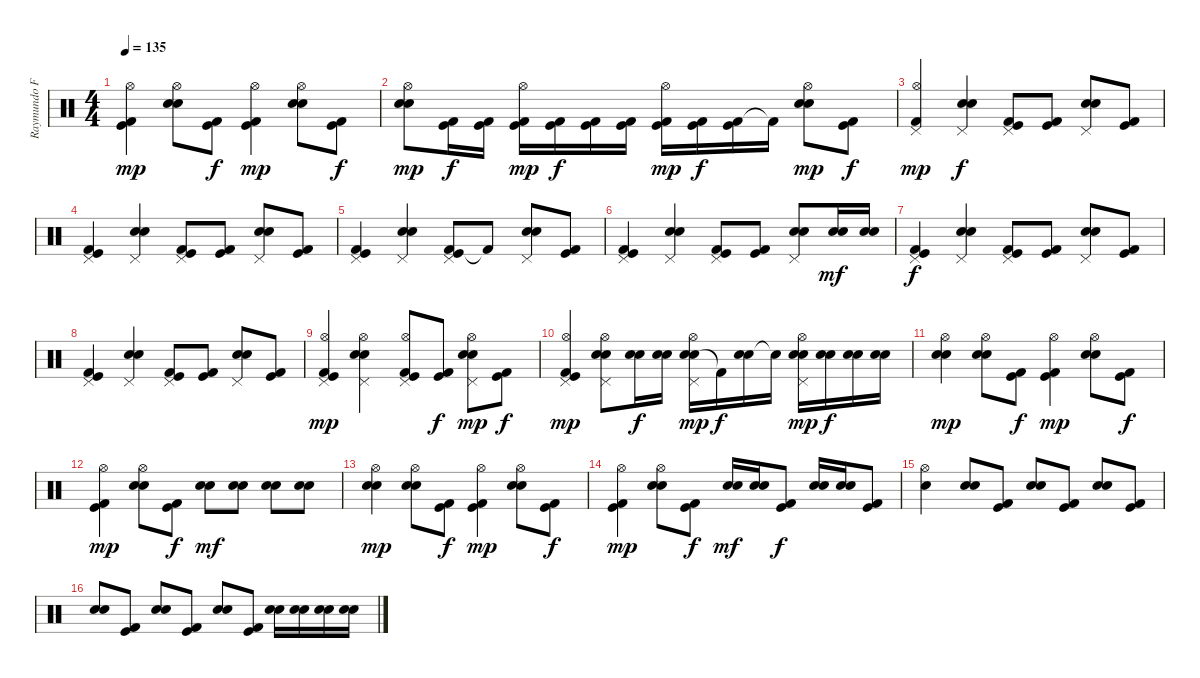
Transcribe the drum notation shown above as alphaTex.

\track ("Raymundo Fajardo" "Raymundo F") {instrument percussion}
\staff {score}
\articulation defaults
\ts (4 4)
\tempo 135
\clef neutral
\ks c
("Kick (hit) 2" "Kick (hit)" "Hi-Hat (open)").4{dy mp} ("Electric Snare (hit)" "Snare (hit) 2" "Hi-Hat (open)").8 ("Kick (hit) 2" "Kick (hit)").8{dy f} ("Kick (hit) 2" "Kick (hit)" "Hi-Hat (open)").4{dy mp} ("Electric Snare (hit)" "Snare (hit) 2" "Hi-Hat (open)").8 ("Kick (hit) 2" "Kick (hit)").8{dy f} |
("Electric Snare (hit)" "Snare (hit) 2" "Hi-Hat (open)").8{dy mp} ("Kick (hit) 2" "Kick (hit)").16{dy f} ("Kick (hit) 2" "Kick (hit)").16 ("Kick (hit) 2" "Kick (hit)" "Hi-Hat (open)").16{dy mp} ("Kick (hit) 2" "Kick (hit)").16{dy f} ("Kick (hit) 2" "Kick (hit)").16 ("Kick (hit) 2" "Kick (hit)").16 ("Kick (hit) 2" "Kick (hit)" "Hi-Hat (open)").16{dy mp} ("Kick (hit) 2" "Kick (hit)").16{dy f} ("Kick (hit) 2" "Kick (hit)").16 "Kick (hit) 2"{t}.16 ("Electric Snare (hit)" "Snare (hit) 2" "Hi-Hat (open)").8{dy mp} ("Kick (hit) 2" "Kick (hit)").8{dy f} |
("Kick (hit) 2" "Hi-Hat (open)" "Pedal Hi-Hat (hit)").4{dy mp} ("Electric Snare (hit)" "Snare (hit) 2" "Pedal Hi-Hat (hit)").4{dy f} ("Kick (hit) 2" "Kick (hit)" "Pedal Hi-Hat (hit)").8 ("Kick (hit) 2" "Kick (hit)").8 ("Electric Snare (hit)" "Snare (hit) 2" "Pedal Hi-Hat (hit)").8 ("Kick (hit) 2" "Kick (hit)").8 |
("Kick (hit) 2" "Kick (hit)" "Pedal Hi-Hat (hit)").4 ("Electric Snare (hit)" "Snare (hit) 2" "Pedal Hi-Hat (hit)").4 ("Kick (hit) 2" "Kick (hit)" "Pedal Hi-Hat (hit)").8 ("Kick (hit) 2" "Kick (hit)").8 ("Electric Snare (hit)" "Snare (hit) 2" "Pedal Hi-Hat (hit)").8 ("Kick (hit) 2" "Kick (hit)").8 |
("Kick (hit) 2" "Kick (hit)" "Pedal Hi-Hat (hit)").4 ("Electric Snare (hit)" "Snare (hit) 2" "Pedal Hi-Hat (hit)").4 ("Kick (hit) 2" "Kick (hit)" "Pedal Hi-Hat (hit)").8 "Kick (hit) 2"{t}.8 ("Electric Snare (hit)" "Snare (hit) 2" "Pedal Hi-Hat (hit)").8 ("Kick (hit) 2" "Kick (hit)").8 |
("Kick (hit) 2" "Kick (hit)" "Pedal Hi-Hat (hit)").4 ("Electric Snare (hit)" "Snare (hit) 2" "Pedal Hi-Hat (hit)").4 ("Kick (hit) 2" "Kick (hit)" "Pedal Hi-Hat (hit)").8 ("Kick (hit) 2" "Kick (hit)").8 ("Electric Snare (hit)" "Snare (hit) 2" "Pedal Hi-Hat (hit)").8 ("Electric Snare (hit)" "Snare (hit) 2").16{dy mf} ("Electric Snare (hit)" "Snare (hit) 2").16 |
("Kick (hit) 2" "Kick (hit)" "Pedal Hi-Hat (hit)").4{dy f} ("Electric Snare (hit)" "Snare (hit) 2" "Pedal Hi-Hat (hit)").4 ("Kick (hit) 2" "Kick (hit)" "Pedal Hi-Hat (hit)").8 ("Kick (hit) 2" "Kick (hit)").8 ("Electric Snare (hit)" "Snare (hit) 2" "Pedal Hi-Hat (hit)").8 ("Kick (hit) 2" "Kick (hit)").8 |
("Kick (hit) 2" "Kick (hit)" "Pedal Hi-Hat (hit)").4 ("Electric Snare (hit)" "Snare (hit) 2" "Pedal Hi-Hat (hit)").4 ("Kick (hit) 2" "Kick (hit)" "Pedal Hi-Hat (hit)").8 ("Kick (hit) 2" "Kick (hit)").8 ("Electric Snare (hit)" "Snare (hit) 2" "Pedal Hi-Hat (hit)").8 ("Kick (hit) 2" "Kick (hit)").8 |
("Kick (hit) 2" "Kick (hit)" "Pedal Hi-Hat (hit)" "Hi-Hat (open)").4{dy mp} ("Electric Snare (hit)" "Snare (hit) 2" "Pedal Hi-Hat (hit)" "Hi-Hat (open)").4 ("Kick (hit) 2" "Kick (hit)" "Pedal Hi-Hat (hit)" "Hi-Hat (open)").8 ("Kick (hit) 2" "Kick (hit)").8{dy f} ("Electric Snare (hit)" "Snare (hit) 2" "Pedal Hi-Hat (hit)" "Hi-Hat (open)").8{dy mp} ("Kick (hit) 2" "Kick (hit)").8{dy f} |
("Kick (hit) 2" "Kick (hit)" "Pedal Hi-Hat (hit)" "Hi-Hat (open)").4{dy mp} ("Electric Snare (hit)" "Snare (hit) 2" "Pedal Hi-Hat (hit)" "Hi-Hat (open)").8 ("Electric Snare (hit)" "Snare (hit) 2").16{dy f} ("Electric Snare (hit)" "Snare (hit) 2").16 ("Electric Snare (hit)" "Snare (hit) 2" "Pedal Hi-Hat (hit)" "Hi-Hat (open)").16{dy mp} "Kick (hit) 2"{t}.16{dy f} ("Electric Snare (hit)" "Snare (hit) 2").16 "Snare (hit)"{t}.16 ("Electric Snare (hit)" "Snare (hit) 2" "Pedal Hi-Hat (hit)" "Hi-Hat (open)").16{dy mp} ("Electric Snare (hit)" "Snare (hit) 2").16{dy f} ("Electric Snare (hit)" "Snare (hit) 2").16 ("Electric Snare (hit)" "Snare (hit) 2").16 |
("Electric Snare (hit)" "Hi-Hat (open)" "Snare (hit) 2").4{dy mp} ("Electric Snare (hit)" "Hi-Hat (open)" "Snare (hit) 2").8 ("Kick (hit) 2" "Kick (hit)").8{dy f} ("Kick (hit) 2" "Hi-Hat (open)" "Kick (hit)").4{dy mp} ("Electric Snare (hit)" "Hi-Hat (open)" "Snare (hit) 2").8 ("Kick (hit) 2" "Kick (hit)").8{dy f} |
("Kick (hit) 2" "Hi-Hat (open)" "Kick (hit)").4{dy mp} ("Electric Snare (hit)" "Hi-Hat (open)" "Snare (hit) 2").8 ("Kick (hit) 2" "Kick (hit)").8{dy f} ("Electric Snare (hit)" "Snare (hit) 2").8{dy mf} ("Electric Snare (hit)" "Snare (hit) 2").8 ("Electric Snare (hit)" "Snare (hit) 2").8 ("Electric Snare (hit)" "Snare (hit) 2").8 |
("Electric Snare (hit)" "Hi-Hat (open)" "Snare (hit) 2").4{dy mp} ("Electric Snare (hit)" "Hi-Hat (open)" "Snare (hit) 2").8 ("Kick (hit) 2" "Kick (hit)").8{dy f} ("Kick (hit) 2" "Hi-Hat (open)" "Kick (hit)").4{dy mp} ("Electric Snare (hit)" "Hi-Hat (open)" "Snare (hit) 2").8 ("Kick (hit) 2" "Kick (hit)").8{dy f} |
("Kick (hit) 2" "Hi-Hat (open)" "Kick (hit)").4{dy mp} ("Electric Snare (hit)" "Hi-Hat (open)" "Snare (hit) 2").8 ("Kick (hit) 2" "Kick (hit)").8{dy f} ("Electric Snare (hit)" "Snare (hit) 2").16{dy mf} ("Electric Snare (hit)" "Snare (hit) 2").16 ("Kick (hit)" "Kick (hit) 2").8{dy f} ("Snare (hit) 2" "Electric Snare (hit)").16 ("Electric Snare (hit)" "Snare (hit) 2").16 ("Kick (hit) 2" "Kick (hit)").8 |
("Electric Snare (hit)" "Hi-Hat (open)").4 ("Electric Snare (hit)" "Snare (hit) 2").8 ("Kick (hit) 2" "Kick (hit)").8 ("Electric Snare (hit)" "Snare (hit) 2").8 ("Kick (hit) 2" "Kick (hit)").8 ("Electric Snare (hit)" "Snare (hit) 2").8 ("Kick (hit) 2" "Kick (hit)").8 |
("Electric Snare (hit)" "Snare (hit) 2").8 ("Kick (hit) 2" "Kick (hit)").8 ("Electric Snare (hit)" "Snare (hit) 2").8 ("Kick (hit) 2" "Kick (hit)").8 ("Electric Snare (hit)" "Snare (hit) 2").8 ("Kick (hit) 2" "Kick (hit)").8 ("Electric Snare (hit)" "Snare (hit) 2").16 ("Electric Snare (hit)" "Snare (hit) 2").16 ("Electric Snare (hit)" "Snare (hit) 2").16 ("Electric Snare (hit)" "Snare (hit) 2").16
